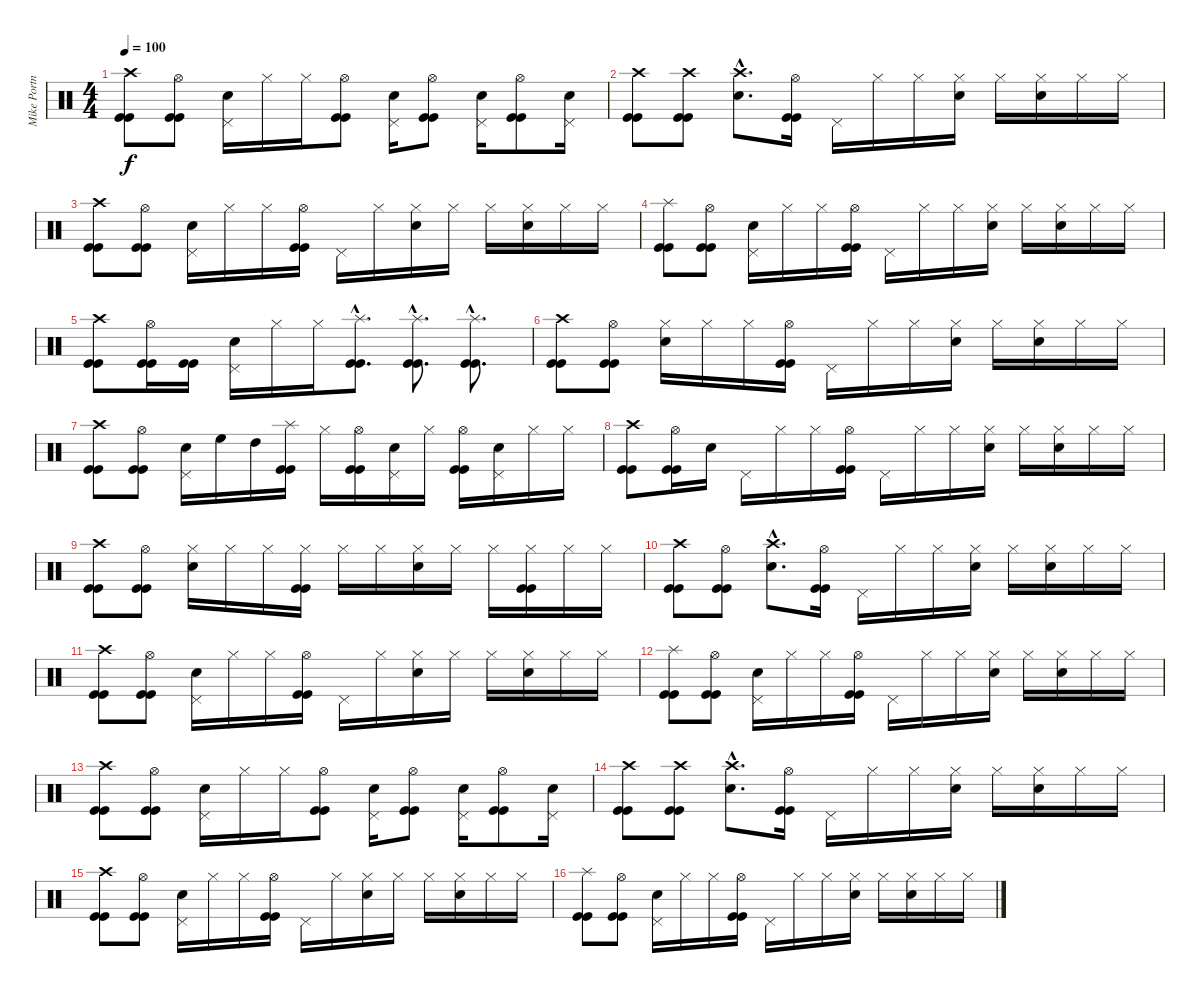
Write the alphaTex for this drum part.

\track ("Mike Portnoy - Drum" "Mike Portn") {instrument percussion}
\staff {score}
\articulation defaults
\ts (4 4)
\tempo 100
\clef neutral
\ks c
("Crash high (hit)" "Kick (hit)" "Kick (hit)").8{dy f} ("Hi-Hat (open)" "Kick (hit)" "Kick (hit)").8 ("Pedal Hi-Hat (hit)" "Snare (hit) 2").16 "Hi-Hat (closed)".16 "Hi-Hat (closed)".16 ("Hi-Hat (open)" "Kick (hit)" "Kick (hit)").8 ("Pedal Hi-Hat (hit)" "Snare (hit) 2").16 ("Hi-Hat (open)" "Kick (hit)" "Kick (hit)").8 ("Pedal Hi-Hat (hit)" "Snare (hit) 2").16 ("Hi-Hat (open)" "Kick (hit)" "Kick (hit)").8 ("Pedal Hi-Hat (hit)" "Snare (hit) 2").16 |
("Crash high (hit)" "Kick (hit)" "Kick (hit)").8 ("Crash high (hit)" "Kick (hit)" "Kick (hit)").8 ("Crash high (hit)"{hac} "Snare (hit) 2"{hac}).8{d} ("Hi-Hat (open)" "Kick (hit)" "Kick (hit)").16 "Pedal Hi-Hat (hit)".16 "Hi-Hat (closed)".16 "Hi-Hat (closed)".16 ("Hi-Hat (closed)" "Snare (hit) 2").16 "Hi-Hat (closed)".16 ("Hi-Hat (closed)" "Snare (hit) 2").16 "Hi-Hat (closed)".16 "Hi-Hat (closed)".16 |
("Crash high (hit)" "Kick (hit)" "Kick (hit)").8 ("Hi-Hat (open)" "Kick (hit)" "Kick (hit)").8 ("Pedal Hi-Hat (hit)" "Snare (hit) 2").16 "Hi-Hat (closed)".16 "Hi-Hat (closed)".16 ("Hi-Hat (open)" "Kick (hit)" "Kick (hit)").16 "Pedal Hi-Hat (hit)".16 "Hi-Hat (closed)".16 ("Hi-Hat (closed)" "Snare (hit) 2").16 "Hi-Hat (closed)".16 "Hi-Hat (closed)".16 ("Hi-Hat (closed)" "Snare (hit) 2").16 "Hi-Hat (closed)".16 "Hi-Hat (closed)".16 |
("Splash (hit)" "Kick (hit)" "Kick (hit)").8 ("Hi-Hat (open)" "Kick (hit)" "Kick (hit)").8 ("Pedal Hi-Hat (hit)" "Snare (hit) 2").16 "Hi-Hat (closed)".16 "Hi-Hat (closed)".16 ("Hi-Hat (open)" "Kick (hit)" "Kick (hit)").16 "Pedal Hi-Hat (hit)".16 "Hi-Hat (closed)".16 "Hi-Hat (closed)".16 ("Hi-Hat (closed)" "Snare (hit) 2").16 "Hi-Hat (closed)".16 ("Hi-Hat (closed)" "Snare (hit) 2").16 "Hi-Hat (closed)".16 "Hi-Hat (closed)".16 |
("Crash high (hit)" "Kick (hit)" "Kick (hit)").8 ("Hi-Hat (open)" "Kick (hit)" "Kick (hit)").16 ("Kick (hit)" "Kick (hit)").16 ("Pedal Hi-Hat (hit)" "Snare (hit) 2").16 "Hi-Hat (closed)".16 "Hi-Hat (closed)".16 ("Splash (hit)"{hac} "Kick (hit)"{hac} "Kick (hit)"{hac}).8{d} ("Splash (hit)"{hac} "Kick (hit)"{hac} "Kick (hit)"{hac}).8{d} ("Splash (hit)"{hac} "Kick (hit)"{hac} "Kick (hit)"{hac}).8{d} |
("Crash high (hit)" "Kick (hit)" "Kick (hit)").8 ("Hi-Hat (open)" "Kick (hit)" "Kick (hit)").8 ("Hi-Hat (closed)" "Snare (hit) 2").16 "Hi-Hat (closed)".16 "Hi-Hat (closed)".16 ("Hi-Hat (open)" "Kick (hit)" "Kick (hit)").16 "Pedal Hi-Hat (hit)".16 "Hi-Hat (closed)".16 "Hi-Hat (closed)".16 ("Hi-Hat (closed)" "Snare (hit) 2").16 "Hi-Hat (closed)".16 ("Hi-Hat (closed)" "Snare (hit) 2").16 "Hi-Hat (closed)".16 "Hi-Hat (closed)".16 |
("Crash high (hit)" "Kick (hit)" "Kick (hit)").8 ("Hi-Hat (open)" "Kick (hit)" "Kick (hit)").8 ("Pedal Hi-Hat (hit)" "Snare (hit) 2").16 "High Floor Tom (hit)".16 "High Tom (hit)".16 ("Splash (hit)" "Kick (hit)" "Kick (hit)").16 "Hi-Hat (closed)".16 ("Hi-Hat (open)" "Kick (hit)" "Kick (hit)").16 ("Pedal Hi-Hat (hit)" "Snare (hit) 2").16 "Hi-Hat (closed)".16 ("Hi-Hat (open)" "Kick (hit)" "Kick (hit)").16 ("Pedal Hi-Hat (hit)" "Snare (hit) 2").16 "Hi-Hat (closed)".16 "Hi-Hat (closed)".16 |
("Crash high (hit)" "Kick (hit)" "Kick (hit)").8 ("Hi-Hat (open)" "Kick (hit)" "Kick (hit)").16 "Snare (hit) 2".16 "Pedal Hi-Hat (hit)".16 "Hi-Hat (closed)".16 "Hi-Hat (closed)".16 ("Hi-Hat (open)" "Kick (hit)" "Kick (hit)").16 "Pedal Hi-Hat (hit)".16 "Hi-Hat (closed)".16 "Hi-Hat (closed)".16 ("Hi-Hat (closed)" "Snare (hit) 2").16 "Hi-Hat (closed)".16 ("Hi-Hat (closed)" "Snare (hit) 2").16 "Hi-Hat (closed)".16 "Hi-Hat (closed)".16 |
("Crash high (hit)" "Kick (hit)" "Kick (hit)").8 ("Hi-Hat (open)" "Kick (hit)" "Kick (hit)").8 ("Hi-Hat (closed)" "Snare (hit) 2").16 "Hi-Hat (closed)".16 "Hi-Hat (closed)".16 ("Hi-Hat (closed)" "Kick (hit)" "Kick (hit)").16 "Hi-Hat (closed)".16 "Hi-Hat (closed)".16 ("Hi-Hat (closed)" "Snare (hit) 2").16 "Hi-Hat (closed)".16 "Hi-Hat (closed)".16 ("Hi-Hat (closed)" "Kick (hit)" "Kick (hit)").16 "Hi-Hat (closed)".16 "Hi-Hat (closed)".16 |
("Crash high (hit)" "Kick (hit)" "Kick (hit)").8 ("Hi-Hat (open)" "Kick (hit)" "Kick (hit)").8 ("Crash high (hit)"{hac} "Snare (hit) 2"{hac}).8{d} ("Hi-Hat (open)" "Kick (hit)" "Kick (hit)").16 "Pedal Hi-Hat (hit)".16 "Hi-Hat (closed)".16 "Hi-Hat (closed)".16 ("Hi-Hat (closed)" "Snare (hit) 2").16 "Hi-Hat (closed)".16 ("Hi-Hat (closed)" "Snare (hit) 2").16 "Hi-Hat (closed)".16 "Hi-Hat (closed)".16 |
("Crash high (hit)" "Kick (hit)" "Kick (hit)").8 ("Hi-Hat (open)" "Kick (hit)" "Kick (hit)").8 ("Pedal Hi-Hat (hit)" "Snare (hit) 2").16 "Hi-Hat (closed)".16 "Hi-Hat (closed)".16 ("Hi-Hat (open)" "Kick (hit)" "Kick (hit)").16 "Pedal Hi-Hat (hit)".16 "Hi-Hat (closed)".16 ("Hi-Hat (closed)" "Snare (hit) 2").16 "Hi-Hat (closed)".16 "Hi-Hat (closed)".16 ("Hi-Hat (closed)" "Snare (hit) 2").16 "Hi-Hat (closed)".16 "Hi-Hat (closed)".16 |
("Splash (hit)" "Kick (hit)" "Kick (hit)").8 ("Hi-Hat (open)" "Kick (hit)" "Kick (hit)").8 ("Pedal Hi-Hat (hit)" "Snare (hit) 2").16 "Hi-Hat (closed)".16 "Hi-Hat (closed)".16 ("Hi-Hat (open)" "Kick (hit)" "Kick (hit)").16 "Pedal Hi-Hat (hit)".16 "Hi-Hat (closed)".16 "Hi-Hat (closed)".16 ("Hi-Hat (closed)" "Snare (hit) 2").16 "Hi-Hat (closed)".16 ("Hi-Hat (closed)" "Snare (hit) 2").16 "Hi-Hat (closed)".16 "Hi-Hat (closed)".16 |
("Crash high (hit)" "Kick (hit)" "Kick (hit)").8 ("Hi-Hat (open)" "Kick (hit)" "Kick (hit)").8 ("Pedal Hi-Hat (hit)" "Snare (hit) 2").16 "Hi-Hat (closed)".16 "Hi-Hat (closed)".16 ("Hi-Hat (open)" "Kick (hit)" "Kick (hit)").8 ("Pedal Hi-Hat (hit)" "Snare (hit) 2").16 ("Hi-Hat (open)" "Kick (hit)" "Kick (hit)").8 ("Pedal Hi-Hat (hit)" "Snare (hit) 2").16 ("Hi-Hat (open)" "Kick (hit)" "Kick (hit)").8 ("Pedal Hi-Hat (hit)" "Snare (hit) 2").16 |
("Crash high (hit)" "Kick (hit)" "Kick (hit)").8 ("Crash high (hit)" "Kick (hit)" "Kick (hit)").8 ("Crash high (hit)"{hac} "Snare (hit) 2"{hac}).8{d} ("Hi-Hat (open)" "Kick (hit)" "Kick (hit)").16 "Pedal Hi-Hat (hit)".16 "Hi-Hat (closed)".16 "Hi-Hat (closed)".16 ("Hi-Hat (closed)" "Snare (hit) 2").16 "Hi-Hat (closed)".16 ("Hi-Hat (closed)" "Snare (hit) 2").16 "Hi-Hat (closed)".16 "Hi-Hat (closed)".16 |
("Crash high (hit)" "Kick (hit)" "Kick (hit)").8 ("Hi-Hat (open)" "Kick (hit)" "Kick (hit)").8 ("Pedal Hi-Hat (hit)" "Snare (hit) 2").16 "Hi-Hat (closed)".16 "Hi-Hat (closed)".16 ("Hi-Hat (open)" "Kick (hit)" "Kick (hit)").16 "Pedal Hi-Hat (hit)".16 "Hi-Hat (closed)".16 ("Hi-Hat (closed)" "Snare (hit) 2").16 "Hi-Hat (closed)".16 "Hi-Hat (closed)".16 ("Hi-Hat (closed)" "Snare (hit) 2").16 "Hi-Hat (closed)".16 "Hi-Hat (closed)".16 |
("Splash (hit)" "Kick (hit)" "Kick (hit)").8 ("Hi-Hat (open)" "Kick (hit)" "Kick (hit)").8 ("Pedal Hi-Hat (hit)" "Snare (hit) 2").16 "Hi-Hat (closed)".16 "Hi-Hat (closed)".16 ("Hi-Hat (open)" "Kick (hit)" "Kick (hit)").16 "Pedal Hi-Hat (hit)".16 "Hi-Hat (closed)".16 "Hi-Hat (closed)".16 ("Hi-Hat (closed)" "Snare (hit) 2").16 "Hi-Hat (closed)".16 ("Hi-Hat (closed)" "Snare (hit) 2").16 "Hi-Hat (closed)".16 "Hi-Hat (closed)".16
